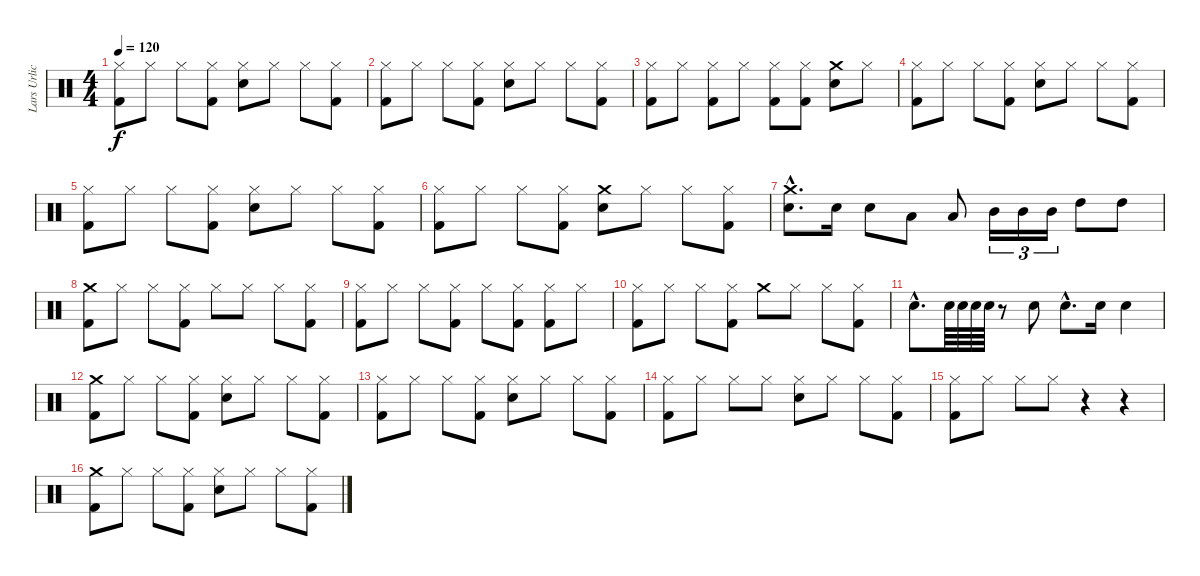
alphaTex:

\track ("Lars Urlich (drums)" "Lars Urlic") {instrument percussion}
\staff {score}
\articulation defaults
\ts (4 4)
\tempo 120
\clef neutral
\ks c
("Kick (hit) 2" "Hi-Hat (closed)").8{dy f} "Hi-Hat (closed)".8 "Hi-Hat (closed)".8 ("Kick (hit) 2" "Hi-Hat (closed)").8 ("Snare (hit) 2" "Hi-Hat (closed)").8 "Hi-Hat (closed)".8 "Hi-Hat (closed)".8 ("Kick (hit) 2" "Hi-Hat (closed)").8 |
("Kick (hit) 2" "Hi-Hat (closed)").8 "Hi-Hat (closed)".8 "Hi-Hat (closed)".8 ("Kick (hit) 2" "Hi-Hat (closed)").8 ("Snare (hit) 2" "Hi-Hat (closed)").8 "Hi-Hat (closed)".8 "Hi-Hat (closed)".8 ("Kick (hit) 2" "Hi-Hat (closed)").8 |
("Kick (hit) 2" "Hi-Hat (closed)").8 "Hi-Hat (closed)".8 ("Kick (hit) 2" "Hi-Hat (closed)").8 "Hi-Hat (closed)".8 ("Kick (hit) 2" "Hi-Hat (closed)").8 ("Kick (hit) 2" "Hi-Hat (closed)").8 ("Snare (hit) 2" "Crash medium (hit)").8 "Hi-Hat (closed)".8 |
("Kick (hit) 2" "Hi-Hat (closed)").8 "Hi-Hat (closed)".8 "Hi-Hat (closed)".8 ("Kick (hit) 2" "Hi-Hat (closed)").8 ("Snare (hit) 2" "Hi-Hat (closed)").8 "Hi-Hat (closed)".8 "Hi-Hat (closed)".8 ("Kick (hit) 2" "Hi-Hat (closed)").8 |
("Kick (hit) 2" "Hi-Hat (closed)").8 "Hi-Hat (closed)".8 "Hi-Hat (closed)".8 ("Kick (hit) 2" "Hi-Hat (closed)").8 ("Snare (hit) 2" "Hi-Hat (closed)").8 "Hi-Hat (closed)".8 "Hi-Hat (closed)".8 ("Kick (hit) 2" "Hi-Hat (closed)").8 |
("Kick (hit) 2" "Hi-Hat (closed)").8 "Hi-Hat (closed)".8 "Hi-Hat (closed)".8 ("Kick (hit) 2" "Hi-Hat (closed)").8 ("Crash medium (hit)" "Snare (hit) 2").8 "Hi-Hat (closed)".8 "Hi-Hat (closed)".8 ("Kick (hit) 2" "Hi-Hat (closed)").8 |
("Snare (hit) 2"{hac} "Crash medium (hit)"{hac}).8{d} "Snare (hit) 2".16 "Snare (hit) 2".8 "Low Tom (hit)".8 "Low Tom (hit)".8 "Mid Tom (hit)".16{tu (3 2)} "Mid Tom (hit)".16{tu (3 2)} "Mid Tom (hit)".16{tu (3 2)} "High Tom (hit)".8 "High Tom (hit)".8 |
("Kick (hit) 2" "Crash medium (hit)").8 "Hi-Hat (closed)".8 "Hi-Hat (closed)".8 ("Kick (hit) 2" "Hi-Hat (closed)").8 "Hi-Hat (closed)".8 "Hi-Hat (closed)".8 "Hi-Hat (closed)".8 ("Kick (hit) 2" "Hi-Hat (closed)").8 |
("Kick (hit) 2" "Hi-Hat (closed)").8 "Hi-Hat (closed)".8 "Hi-Hat (closed)".8 ("Kick (hit) 2" "Hi-Hat (closed)").8 "Hi-Hat (closed)".8 ("Kick (hit) 2" "Hi-Hat (closed)").8 ("Kick (hit) 2" "Hi-Hat (closed)").8 "Hi-Hat (closed)".8 |
("Kick (hit) 2" "Hi-Hat (closed)").8 "Hi-Hat (closed)".8 "Hi-Hat (closed)".8 ("Kick (hit) 2" "Hi-Hat (closed)").8 "Crash medium (hit)".8 "Hi-Hat (closed)".8 "Hi-Hat (closed)".8 ("Kick (hit) 2" "Hi-Hat (closed)").8 |
"Snare (hit) 2"{hac}.8{d} "Snare (hit) 2".64 "Snare (hit) 2".64 "Snare (hit) 2".64 "Snare (hit) 2".64 r.8 "Snare (hit) 2".8 "Snare (hit) 2"{hac}.8{d} "Snare (hit) 2".16 "Snare (hit) 2".4 |
("Crash medium (hit)" "Kick (hit) 2").8 "Hi-Hat (closed)".8 "Hi-Hat (closed)".8 ("Kick (hit) 2" "Hi-Hat (closed)").8 ("Snare (hit) 2" "Hi-Hat (closed)").8 "Hi-Hat (closed)".8 "Hi-Hat (closed)".8 ("Kick (hit) 2" "Hi-Hat (closed)").8 |
("Hi-Hat (closed)" "Kick (hit) 2").8 "Hi-Hat (closed)".8 "Hi-Hat (closed)".8 ("Kick (hit) 2" "Hi-Hat (closed)").8 ("Snare (hit) 2" "Hi-Hat (closed)").8 "Hi-Hat (closed)".8 "Hi-Hat (closed)".8 ("Kick (hit) 2" "Hi-Hat (closed)").8 |
("Hi-Hat (closed)" "Kick (hit) 2").8 "Hi-Hat (closed)".8 "Hi-Hat (closed)".8 "Hi-Hat (closed)".8 ("Snare (hit) 2" "Hi-Hat (closed)").8 "Hi-Hat (closed)".8 "Hi-Hat (closed)".8 ("Kick (hit) 2" "Hi-Hat (closed)").8 |
("Hi-Hat (closed)" "Kick (hit) 2").8 "Hi-Hat (closed)".8 "Hi-Hat (closed)".8 "Hi-Hat (closed)".8 r.4 r.4 |
("Kick (hit) 2" "Crash medium (hit)").8 "Hi-Hat (closed)".8 "Hi-Hat (closed)".8 ("Kick (hit) 2" "Hi-Hat (closed)").8 ("Snare (hit) 2" "Hi-Hat (closed)").8 "Hi-Hat (closed)".8 "Hi-Hat (closed)".8 ("Kick (hit) 2" "Hi-Hat (closed)").8
